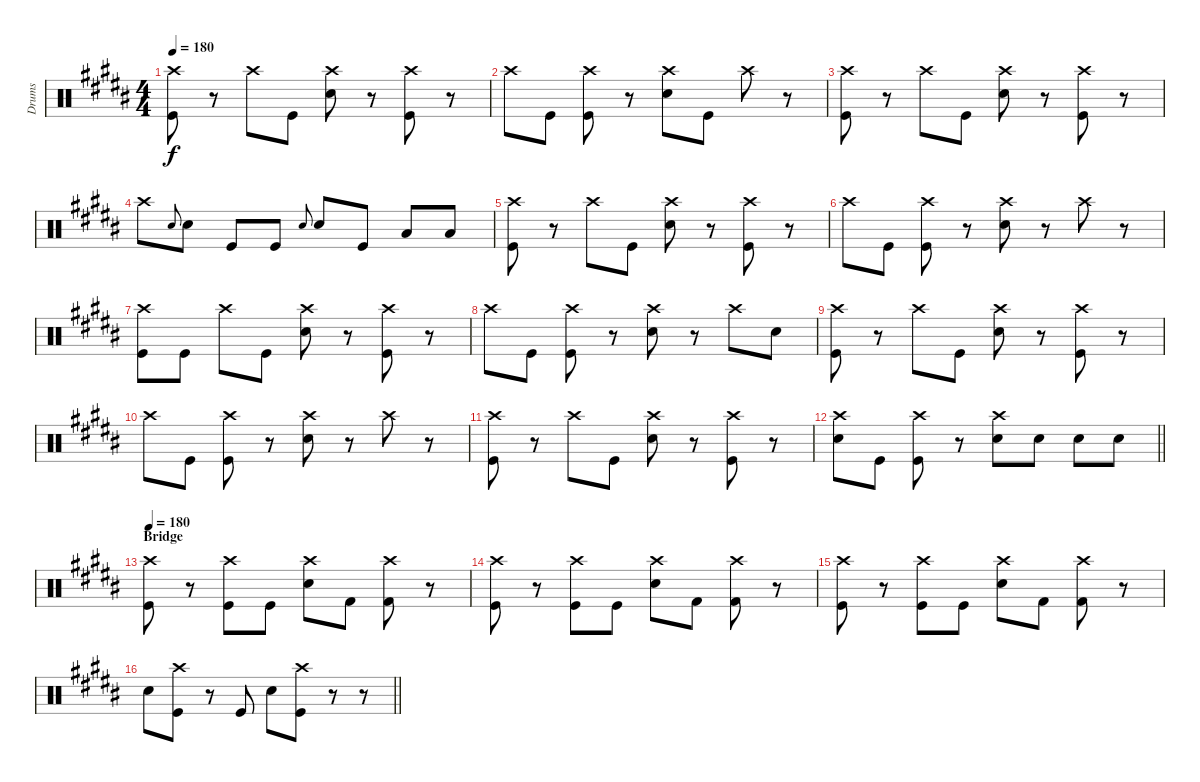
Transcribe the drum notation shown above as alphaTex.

\track ("Drums" "Drums") {instrument percussion}
\staff {score}
\articulation defaults
\ts (4 4)
\tempo 180
\clef neutral
\ks b
("Crash high (hit)" "Kick (hit)").8{dy f} r.8 "Crash high (hit)".8 "Kick (hit)".8 ("Crash high (hit)" "Snare (hit) 2").8 r.8 ("Crash high (hit)" "Kick (hit)").8 r.8 |
"Crash high (hit)".8 "Kick (hit)".8 ("Crash high (hit)" "Kick (hit)").8 r.8 ("Crash high (hit)" "Snare (hit) 2").8 "Kick (hit)".8 "Crash high (hit)".8 r.8 |
("Crash high (hit)" "Kick (hit)").8 r.8 "Crash high (hit)".8 "Kick (hit)".8 ("Crash high (hit)" "Snare (hit) 2").8 r.8 ("Crash high (hit)" "Kick (hit)").8 r.8 |
"Crash high (hit)".8 "Snare (hit) 2".8{gr onbeat} "Snare (hit) 2".8 "Kick (hit)".8 "Kick (hit)".8 "Snare (hit) 2".8{gr onbeat} "Snare (hit) 2".8 "Kick (hit)".8 "Low Floor Tom (hit)".8 "Low Floor Tom (hit)".8 |
("Crash high (hit)" "Kick (hit)").8 r.8 "Crash high (hit)".8 "Kick (hit)".8 ("Crash high (hit)" "Snare (hit) 2").8 r.8 ("Crash high (hit)" "Kick (hit)").8 r.8 |
"Crash high (hit)".8 "Kick (hit)".8 ("Crash high (hit)" "Kick (hit)").8 r.8 ("Crash high (hit)" "Snare (hit) 2").8 r.8 "Crash high (hit)".8 r.8 |
("Crash high (hit)" "Kick (hit)").8 "Kick (hit)".8 "Crash high (hit)".8 "Kick (hit)".8 ("Crash high (hit)" "Snare (hit) 2").8 r.8 ("Crash high (hit)" "Kick (hit)").8 r.8 |
"Crash high (hit)".8 "Kick (hit)".8 ("Crash high (hit)" "Kick (hit)").8 r.8 ("Crash high (hit)" "Snare (hit) 2").8 r.8 "Crash high (hit)".8 "Snare (hit) 2".8 |
("Crash high (hit)" "Kick (hit)").8 r.8 "Crash high (hit)".8 "Kick (hit)".8 ("Crash high (hit)" "Snare (hit) 2").8 r.8 ("Crash high (hit)" "Kick (hit)").8 r.8 |
"Crash high (hit)".8 "Kick (hit)".8 ("Crash high (hit)" "Kick (hit)").8 r.8 ("Crash high (hit)" "Snare (hit) 2").8 r.8 "Crash high (hit)".8 r.8 |
("Crash high (hit)" "Kick (hit)").8 r.8 "Crash high (hit)".8 "Kick (hit)".8 ("Crash high (hit)" "Snare (hit) 2").8 r.8 ("Crash high (hit)" "Kick (hit)").8 r.8 |
\barLineRight lightlight
("Crash high (hit)" "Snare (hit) 2").8 "Kick (hit)".8 ("Crash high (hit)" "Kick (hit)").8 r.8 ("Crash high (hit)" "Snare (hit) 2").8 "Snare (hit) 2".8 "Snare (hit) 2".8 "Snare (hit) 2".8 |
\section ("" "Bridge")
\tempo 180
("Crash high (hit)" "Kick (hit)").8 r.8 ("Crash high (hit)" "Kick (hit)").8 "Kick (hit)".8 ("Crash high (hit)" "Snare (hit) 2").8 "Kick (hit) 2".8 ("Crash high (hit)" "Kick (hit) 2").8 r.8 |
("Crash high (hit)" "Kick (hit)").8 r.8 ("Crash high (hit)" "Kick (hit)").8 "Kick (hit)".8 ("Crash high (hit)" "Snare (hit) 2").8 "Kick (hit) 2".8 ("Crash high (hit)" "Kick (hit) 2").8 r.8 |
("Crash high (hit)" "Kick (hit)").8 r.8 ("Crash high (hit)" "Kick (hit)").8 "Kick (hit)".8 ("Crash high (hit)" "Snare (hit) 2").8 "Kick (hit) 2".8 ("Crash high (hit)" "Kick (hit) 2").8 r.8 |
\barLineRight lightlight "Snare (hit) 2".8
("Crash high (hit)" "Kick (hit)").8 r.8 "Kick (hit)".8 "Snare (hit) 2".8 ("Crash high (hit)" "Kick (hit)").8 r.8 r.8
